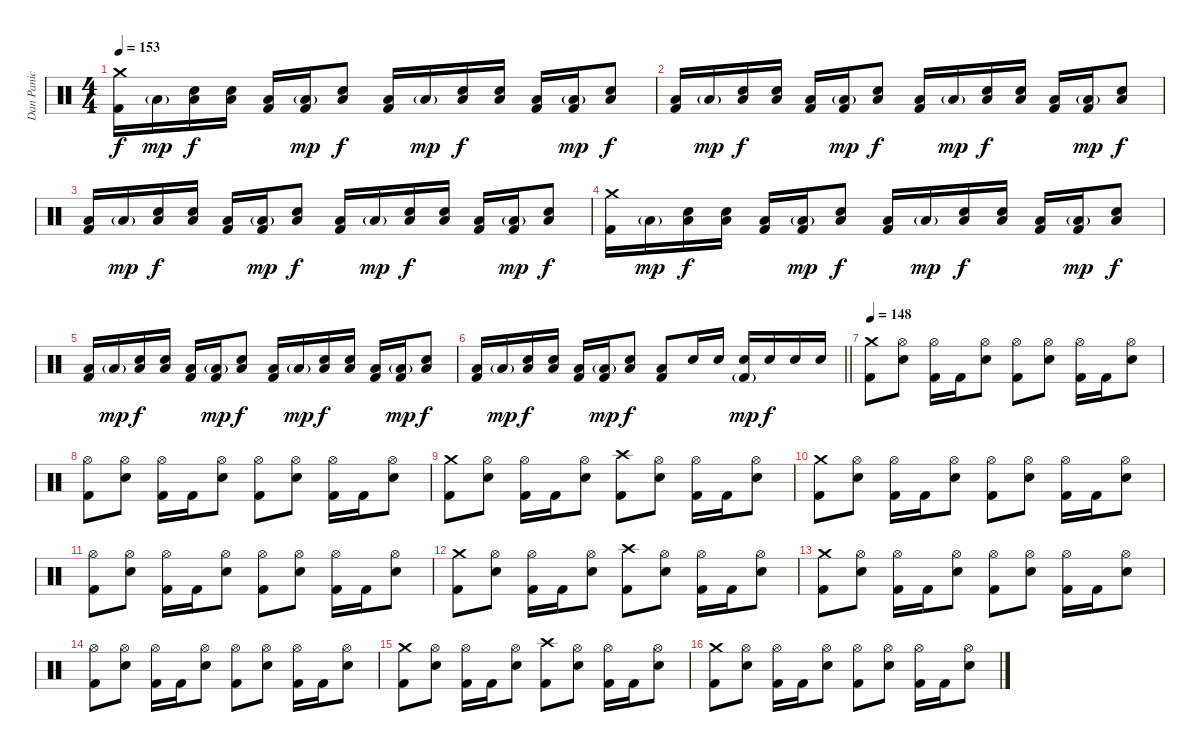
\track ("Dan Panic" "Dan Panic") {instrument percussion}
\staff {score}
\articulation defaults
\ts (4 4)
\section ("" "")
\tempo 153
\clef neutral
\ks c
("Crash medium (hit)" "Kick (hit) 2").16{dy f} "Low Floor Tom (hit)"{g}.16{dy mp} ("Electric Snare (hit)" "Low Floor Tom (hit)").16{dy f} ("Electric Snare (hit)" "Low Floor Tom (hit)").16 ("Low Floor Tom (hit)" "Kick (hit) 2").16 ("Low Floor Tom (hit)"{g} "Kick (hit) 2").16{dy mp} ("Electric Snare (hit)" "Low Floor Tom (hit)").8{dy f} ("Low Floor Tom (hit)" "Kick (hit) 2").16 "Low Floor Tom (hit)"{g}.16{dy mp} ("Electric Snare (hit)" "Low Floor Tom (hit)").16{dy f} ("Electric Snare (hit)" "Low Floor Tom (hit)").16 ("Low Floor Tom (hit)" "Kick (hit) 2").16 ("Low Floor Tom (hit)"{g} "Kick (hit) 2").16{dy mp} ("Electric Snare (hit)" "Low Floor Tom (hit)").8{dy f} |
("Low Floor Tom (hit)" "Kick (hit) 2").16 "Low Floor Tom (hit)"{g}.16{dy mp} ("Electric Snare (hit)" "Low Floor Tom (hit)").16{dy f} ("Electric Snare (hit)" "Low Floor Tom (hit)").16 ("Low Floor Tom (hit)" "Kick (hit) 2").16 ("Low Floor Tom (hit)"{g} "Kick (hit) 2").16{dy mp} ("Electric Snare (hit)" "Low Floor Tom (hit)").8{dy f} ("Low Floor Tom (hit)" "Kick (hit) 2").16 "Low Floor Tom (hit)"{g}.16{dy mp} ("Electric Snare (hit)" "Low Floor Tom (hit)").16{dy f} ("Electric Snare (hit)" "Low Floor Tom (hit)").16 ("Low Floor Tom (hit)" "Kick (hit) 2").16 ("Low Floor Tom (hit)"{g} "Kick (hit) 2").16{dy mp} ("Electric Snare (hit)" "Low Floor Tom (hit)").8{dy f} |
("Low Floor Tom (hit)" "Kick (hit) 2").16 "Low Floor Tom (hit)"{g}.16{dy mp} ("Electric Snare (hit)" "Low Floor Tom (hit)").16{dy f} ("Electric Snare (hit)" "Low Floor Tom (hit)").16 ("Low Floor Tom (hit)" "Kick (hit) 2").16 ("Low Floor Tom (hit)"{g} "Kick (hit) 2").16{dy mp} ("Electric Snare (hit)" "Low Floor Tom (hit)").8{dy f} ("Low Floor Tom (hit)" "Kick (hit) 2").16 "Low Floor Tom (hit)"{g}.16{dy mp} ("Electric Snare (hit)" "Low Floor Tom (hit)").16{dy f} ("Electric Snare (hit)" "Low Floor Tom (hit)").16 ("Low Floor Tom (hit)" "Kick (hit) 2").16 ("Low Floor Tom (hit)"{g} "Kick (hit) 2").16{dy mp} ("Electric Snare (hit)" "Low Floor Tom (hit)").8{dy f} |
("Crash medium (hit)" "Kick (hit) 2").16 "Low Floor Tom (hit)"{g}.16{dy mp} ("Electric Snare (hit)" "Low Floor Tom (hit)").16{dy f} ("Electric Snare (hit)" "Low Floor Tom (hit)").16 ("Low Floor Tom (hit)" "Kick (hit) 2").16 ("Low Floor Tom (hit)"{g} "Kick (hit) 2").16{dy mp} ("Electric Snare (hit)" "Low Floor Tom (hit)").8{dy f} ("Low Floor Tom (hit)" "Kick (hit) 2").16 "Low Floor Tom (hit)"{g}.16{dy mp} ("Electric Snare (hit)" "Low Floor Tom (hit)").16{dy f} ("Electric Snare (hit)" "Low Floor Tom (hit)").16 ("Low Floor Tom (hit)" "Kick (hit) 2").16 ("Low Floor Tom (hit)"{g} "Kick (hit) 2").16{dy mp} ("Electric Snare (hit)" "Low Floor Tom (hit)").8{dy f} |
("Low Floor Tom (hit)" "Kick (hit) 2").16 "Low Floor Tom (hit)"{g}.16{dy mp} ("Electric Snare (hit)" "Low Floor Tom (hit)").16{dy f} ("Electric Snare (hit)" "Low Floor Tom (hit)").16 ("Low Floor Tom (hit)" "Kick (hit) 2").16 ("Low Floor Tom (hit)"{g} "Kick (hit) 2").16{dy mp} ("Electric Snare (hit)" "Low Floor Tom (hit)").8{dy f} ("Low Floor Tom (hit)" "Kick (hit) 2").16 "Low Floor Tom (hit)"{g}.16{dy mp} ("Electric Snare (hit)" "Low Floor Tom (hit)").16{dy f} ("Electric Snare (hit)" "Low Floor Tom (hit)").16 ("Low Floor Tom (hit)" "Kick (hit) 2").16 ("Low Floor Tom (hit)"{g} "Kick (hit) 2").16{dy mp} ("Electric Snare (hit)" "Low Floor Tom (hit)").8{dy f} |
\barLineRight lightlight
("Low Floor Tom (hit)" "Kick (hit) 2").16 "Low Floor Tom (hit)"{g}.16{dy mp} ("Electric Snare (hit)" "Low Floor Tom (hit)").16{dy f} ("Electric Snare (hit)" "Low Floor Tom (hit)").16 ("Low Floor Tom (hit)" "Kick (hit) 2").16 ("Low Floor Tom (hit)"{g} "Kick (hit) 2").16{dy mp} ("Electric Snare (hit)" "Low Floor Tom (hit)").8{dy f} ("Low Floor Tom (hit)" "Kick (hit) 2").8 "Electric Snare (hit)".16 "Electric Snare (hit)".16 ("Electric Snare (hit)" "Kick (hit) 2"{g}).16{dy mp} "Electric Snare (hit)".16{dy f} "Electric Snare (hit)".16 "Electric Snare (hit)".16 |
\section ("" "")
\tempo 148
("Crash medium (hit)" "Kick (hit) 2").8 ("Hi-Hat (open)" "Electric Snare (hit)").8 ("Hi-Hat (open)" "Kick (hit) 2").16 "Kick (hit) 2".16 ("Hi-Hat (open)" "Electric Snare (hit)").8 ("Hi-Hat (open)" "Kick (hit) 2").8 ("Hi-Hat (open)" "Electric Snare (hit)").8 ("Hi-Hat (open)" "Kick (hit) 2").16 "Kick (hit) 2".16 ("Hi-Hat (open)" "Electric Snare (hit)").8 |
("Hi-Hat (open)" "Kick (hit) 2").8 ("Hi-Hat (open)" "Electric Snare (hit)").8 ("Hi-Hat (open)" "Kick (hit) 2").16 "Kick (hit) 2".16 ("Hi-Hat (open)" "Electric Snare (hit)").8 ("Hi-Hat (open)" "Kick (hit) 2").8 ("Hi-Hat (open)" "Electric Snare (hit)").8 ("Hi-Hat (open)" "Kick (hit) 2").16 "Kick (hit) 2".16 ("Hi-Hat (open)" "Electric Snare (hit)").8 |
("Crash medium (hit)" "Kick (hit) 2").8 ("Hi-Hat (open)" "Electric Snare (hit)").8 ("Hi-Hat (open)" "Kick (hit) 2").16 "Kick (hit) 2".16 ("Hi-Hat (open)" "Electric Snare (hit)").8 ("Crash high (hit)" "Kick (hit) 2").8 ("Hi-Hat (open)" "Electric Snare (hit)").8 ("Hi-Hat (open)" "Kick (hit) 2").16 "Kick (hit) 2".16 ("Hi-Hat (open)" "Electric Snare (hit)").8 |
("Crash medium (hit)" "Kick (hit) 2").8 ("Hi-Hat (open)" "Electric Snare (hit)").8 ("Hi-Hat (open)" "Kick (hit) 2").16 "Kick (hit) 2".16 ("Hi-Hat (open)" "Electric Snare (hit)").8 ("Hi-Hat (open)" "Kick (hit) 2").8 ("Hi-Hat (open)" "Electric Snare (hit)").8 ("Hi-Hat (open)" "Kick (hit) 2").16 "Kick (hit) 2".16 ("Hi-Hat (open)" "Electric Snare (hit)").8 |
("Hi-Hat (open)" "Kick (hit) 2").8 ("Hi-Hat (open)" "Electric Snare (hit)").8 ("Hi-Hat (open)" "Kick (hit) 2").16 "Kick (hit) 2".16 ("Hi-Hat (open)" "Electric Snare (hit)").8 ("Hi-Hat (open)" "Kick (hit) 2").8 ("Hi-Hat (open)" "Electric Snare (hit)").8 ("Hi-Hat (open)" "Kick (hit) 2").16 "Kick (hit) 2".16 ("Hi-Hat (open)" "Electric Snare (hit)").8 |
("Crash medium (hit)" "Kick (hit) 2").8 ("Hi-Hat (open)" "Electric Snare (hit)").8 ("Hi-Hat (open)" "Kick (hit) 2").16 "Kick (hit) 2".16 ("Hi-Hat (open)" "Electric Snare (hit)").8 ("Crash high (hit)" "Kick (hit) 2").8 ("Hi-Hat (open)" "Electric Snare (hit)").8 ("Hi-Hat (open)" "Kick (hit) 2").16 "Kick (hit) 2".16 ("Hi-Hat (open)" "Electric Snare (hit)").8 |
("Crash medium (hit)" "Kick (hit) 2").8 ("Hi-Hat (open)" "Electric Snare (hit)").8 ("Hi-Hat (open)" "Kick (hit) 2").16 "Kick (hit) 2".16 ("Hi-Hat (open)" "Electric Snare (hit)").8 ("Hi-Hat (open)" "Kick (hit) 2").8 ("Hi-Hat (open)" "Electric Snare (hit)").8 ("Hi-Hat (open)" "Kick (hit) 2").16 "Kick (hit) 2".16 ("Hi-Hat (open)" "Electric Snare (hit)").8 |
("Hi-Hat (open)" "Kick (hit) 2").8 ("Hi-Hat (open)" "Electric Snare (hit)").8 ("Hi-Hat (open)" "Kick (hit) 2").16 "Kick (hit) 2".16 ("Hi-Hat (open)" "Electric Snare (hit)").8 ("Hi-Hat (open)" "Kick (hit) 2").8 ("Hi-Hat (open)" "Electric Snare (hit)").8 ("Hi-Hat (open)" "Kick (hit) 2").16 "Kick (hit) 2".16 ("Hi-Hat (open)" "Electric Snare (hit)").8 |
("Crash medium (hit)" "Kick (hit) 2").8 ("Hi-Hat (open)" "Electric Snare (hit)").8 ("Hi-Hat (open)" "Kick (hit) 2").16 "Kick (hit) 2".16 ("Hi-Hat (open)" "Electric Snare (hit)").8 ("Crash high (hit)" "Kick (hit) 2").8 ("Hi-Hat (open)" "Electric Snare (hit)").8 ("Hi-Hat (open)" "Kick (hit) 2").16 "Kick (hit) 2".16 ("Hi-Hat (open)" "Electric Snare (hit)").8 |
("Crash medium (hit)" "Kick (hit) 2").8 ("Hi-Hat (open)" "Electric Snare (hit)").8 ("Hi-Hat (open)" "Kick (hit) 2").16 "Kick (hit) 2".16 ("Hi-Hat (open)" "Electric Snare (hit)").8 ("Hi-Hat (open)" "Kick (hit) 2").8 ("Hi-Hat (open)" "Electric Snare (hit)").8 ("Hi-Hat (open)" "Kick (hit) 2").16 "Kick (hit) 2".16 ("Hi-Hat (open)" "Electric Snare (hit)").8
